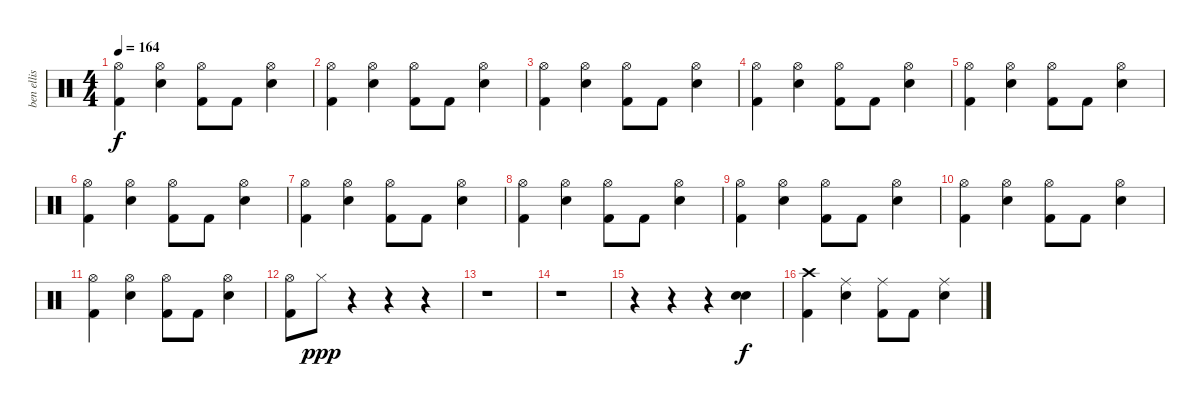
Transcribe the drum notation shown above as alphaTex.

\track ("ben ellis" "ben ellis") {instrument percussion}
\staff {score}
\articulation defaults
\ts (4 4)
\tempo 164
\clef neutral
\ks c
("Hi-Hat (open)" "Kick (hit) 2").4{dy f} ("Hi-Hat (open)" "Electric Snare (hit)").4 ("Hi-Hat (open)" "Kick (hit) 2").8 "Kick (hit) 2".8 ("Hi-Hat (open)" "Electric Snare (hit)").4 |
("Hi-Hat (open)" "Kick (hit) 2").4 ("Hi-Hat (open)" "Electric Snare (hit)").4 ("Hi-Hat (open)" "Kick (hit) 2").8 "Kick (hit) 2".8 ("Hi-Hat (open)" "Electric Snare (hit)").4 |
("Hi-Hat (open)" "Kick (hit) 2").4 ("Hi-Hat (open)" "Electric Snare (hit)").4 ("Hi-Hat (open)" "Kick (hit) 2").8 "Kick (hit) 2".8 ("Hi-Hat (open)" "Electric Snare (hit)").4 |
("Hi-Hat (open)" "Kick (hit) 2").4 ("Hi-Hat (open)" "Electric Snare (hit)").4 ("Hi-Hat (open)" "Kick (hit) 2").8 "Kick (hit) 2".8 ("Hi-Hat (open)" "Electric Snare (hit)").4 |
("Hi-Hat (open)" "Kick (hit) 2").4 ("Hi-Hat (open)" "Electric Snare (hit)").4 ("Hi-Hat (open)" "Kick (hit) 2").8 "Kick (hit) 2".8 ("Hi-Hat (open)" "Electric Snare (hit)").4 |
("Hi-Hat (open)" "Kick (hit) 2").4 ("Hi-Hat (open)" "Electric Snare (hit)").4 ("Hi-Hat (open)" "Kick (hit) 2").8 "Kick (hit) 2".8 ("Hi-Hat (open)" "Electric Snare (hit)").4 |
("Hi-Hat (open)" "Kick (hit) 2").4 ("Hi-Hat (open)" "Electric Snare (hit)").4 ("Hi-Hat (open)" "Kick (hit) 2").8 "Kick (hit) 2".8 ("Hi-Hat (open)" "Electric Snare (hit)").4 |
("Hi-Hat (open)" "Kick (hit) 2").4 ("Hi-Hat (open)" "Electric Snare (hit)").4 ("Hi-Hat (open)" "Kick (hit) 2").8 "Kick (hit) 2".8 ("Hi-Hat (open)" "Electric Snare (hit)").4 |
("Hi-Hat (open)" "Kick (hit) 2").4 ("Hi-Hat (open)" "Electric Snare (hit)").4 ("Hi-Hat (open)" "Kick (hit) 2").8 "Kick (hit) 2".8 ("Hi-Hat (open)" "Electric Snare (hit)").4 |
("Hi-Hat (open)" "Kick (hit) 2").4 ("Hi-Hat (open)" "Electric Snare (hit)").4 ("Hi-Hat (open)" "Kick (hit) 2").8 "Kick (hit) 2".8 ("Hi-Hat (open)" "Electric Snare (hit)").4 |
("Hi-Hat (open)" "Kick (hit) 2").4 ("Hi-Hat (open)" "Electric Snare (hit)").4 ("Hi-Hat (open)" "Kick (hit) 2").8 "Kick (hit) 2".8 ("Hi-Hat (open)" "Electric Snare (hit)").4 |
("Hi-Hat (open)" "Kick (hit) 2").8 "Hi-Hat (closed)".8{dy ppp} r.4 r.4 r.4 |
r.1 |
r.1 |
r.4 r.4 r.4 ("Electric Snare (hit)" "Electric Snare (hit)").4{dy f} |
("Crash high (hit)" "Kick (hit) 2").4 ("Ride (middle)" "Electric Snare (hit)").4 ("Ride (middle)" "Kick (hit) 2").8 "Kick (hit) 2".8 ("Ride (middle)" "Electric Snare (hit)").4
